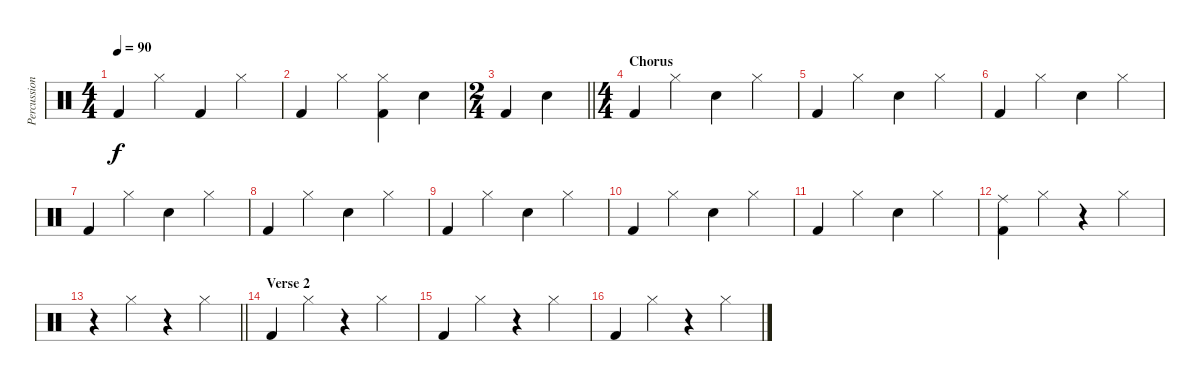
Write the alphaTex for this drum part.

\track ("Percussion" "Percussion") {instrument percussion}
\staff {score}
\articulation defaults
\ts (4 4)
\tempo 90
\clef neutral
\ks c "Kick (hit) 2".4{dy f} "Hi-Hat (closed)".4 "Kick (hit) 2".4 "Hi-Hat (closed)".4
|
"Kick (hit) 2".4 "Hi-Hat (closed)".4 ("Hi-Hat (closed)" "Kick (hit) 2").4 "Snare (hit) 2".4 |
\ts (2 4)
\barLineRight lightlight "Kick (hit) 2".4 "Snare (hit) 2".4
|
\ts (4 4)
\section ("" "Chorus")
"Kick (hit) 2".4 "Hi-Hat (closed)".4 "Snare (hit) 2".4 "Hi-Hat (closed)".4 |
"Kick (hit) 2".4 "Hi-Hat (closed)".4 "Snare (hit) 2".4 "Hi-Hat (closed)".4 |
"Kick (hit) 2".4 "Hi-Hat (closed)".4 "Snare (hit) 2".4 "Hi-Hat (closed)".4 |
"Kick (hit) 2".4 "Hi-Hat (closed)".4 "Snare (hit) 2".4 "Hi-Hat (closed)".4 |
"Kick (hit) 2".4 "Hi-Hat (closed)".4 "Snare (hit) 2".4 "Hi-Hat (closed)".4 |
"Kick (hit) 2".4 "Hi-Hat (closed)".4 "Snare (hit) 2".4 "Hi-Hat (closed)".4 |
"Kick (hit) 2".4 "Hi-Hat (closed)".4 "Snare (hit) 2".4 "Hi-Hat (closed)".4 |
"Kick (hit) 2".4 "Hi-Hat (closed)".4 "Snare (hit) 2".4 "Hi-Hat (closed)".4 |
("Ride (middle)" "Kick (hit) 2").4 "Hi-Hat (closed)".4 r.4 "Hi-Hat (closed)".4 |
\barLineRight lightlight
r.4 "Hi-Hat (closed)".4 r.4 "Hi-Hat (closed)".4 |
\section ("" "Verse 2")
"Kick (hit) 2".4 "Hi-Hat (closed)".4 r.4 "Hi-Hat (closed)".4 |
"Kick (hit) 2".4 "Hi-Hat (closed)".4 r.4 "Hi-Hat (closed)".4 |
"Kick (hit) 2".4 "Hi-Hat (closed)".4 r.4 "Hi-Hat (closed)".4
